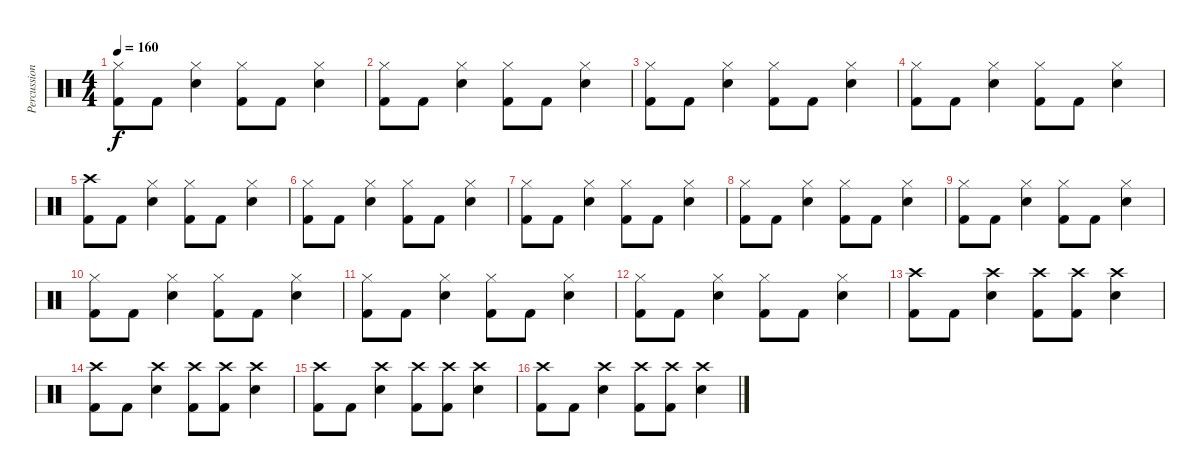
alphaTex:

\track ("Percussioni" "Percussion") {instrument percussion}
\staff {score}
\articulation defaults
\ts (4 4)
\tempo 160
\clef neutral
\ks c
("Hi-Hat (closed)" "Kick (hit) 2").8{dy f} "Kick (hit) 2".8 ("Hi-Hat (closed)" "Snare (hit) 2").4 ("Hi-Hat (closed)" "Kick (hit) 2").8 "Kick (hit) 2".8 ("Hi-Hat (closed)" "Snare (hit) 2").4 |
("Hi-Hat (closed)" "Kick (hit) 2").8 "Kick (hit) 2".8 ("Hi-Hat (closed)" "Snare (hit) 2").4 ("Hi-Hat (closed)" "Kick (hit) 2").8 "Kick (hit) 2".8 ("Hi-Hat (closed)" "Snare (hit) 2").4 |
("Hi-Hat (closed)" "Kick (hit) 2").8 "Kick (hit) 2".8 ("Hi-Hat (closed)" "Snare (hit) 2").4 ("Hi-Hat (closed)" "Kick (hit) 2").8 "Kick (hit) 2".8 ("Hi-Hat (closed)" "Snare (hit) 2").4 |
("Hi-Hat (closed)" "Kick (hit) 2").8 "Kick (hit) 2".8 ("Hi-Hat (closed)" "Snare (hit) 2").4 ("Hi-Hat (closed)" "Kick (hit) 2").8 "Kick (hit) 2".8 ("Hi-Hat (closed)" "Snare (hit) 2").4 |
("Crash high (hit)" "Kick (hit) 2").8 "Kick (hit) 2".8 ("Hi-Hat (closed)" "Snare (hit) 2").4 ("Hi-Hat (closed)" "Kick (hit) 2").8 "Kick (hit) 2".8 ("Hi-Hat (closed)" "Snare (hit) 2").4 |
("Hi-Hat (closed)" "Kick (hit) 2").8 "Kick (hit) 2".8 ("Hi-Hat (closed)" "Snare (hit) 2").4 ("Hi-Hat (closed)" "Kick (hit) 2").8 "Kick (hit) 2".8 ("Hi-Hat (closed)" "Snare (hit) 2").4 |
("Hi-Hat (closed)" "Kick (hit) 2").8 "Kick (hit) 2".8 ("Hi-Hat (closed)" "Snare (hit) 2").4 ("Hi-Hat (closed)" "Kick (hit) 2").8 "Kick (hit) 2".8 ("Hi-Hat (closed)" "Snare (hit) 2").4 |
("Hi-Hat (closed)" "Kick (hit) 2").8 "Kick (hit) 2".8 ("Hi-Hat (closed)" "Snare (hit) 2").4 ("Hi-Hat (closed)" "Kick (hit) 2").8 "Kick (hit) 2".8 ("Hi-Hat (closed)" "Snare (hit) 2").4 |
("Hi-Hat (closed)" "Kick (hit) 2").8 "Kick (hit) 2".8 ("Hi-Hat (closed)" "Snare (hit) 2").4 ("Hi-Hat (closed)" "Kick (hit) 2").8 "Kick (hit) 2".8 ("Hi-Hat (closed)" "Snare (hit) 2").4 |
("Hi-Hat (closed)" "Kick (hit) 2").8 "Kick (hit) 2".8 ("Hi-Hat (closed)" "Snare (hit) 2").4 ("Hi-Hat (closed)" "Kick (hit) 2").8 "Kick (hit) 2".8 ("Hi-Hat (closed)" "Snare (hit) 2").4 |
("Hi-Hat (closed)" "Kick (hit) 2").8 "Kick (hit) 2".8 ("Hi-Hat (closed)" "Snare (hit) 2").4 ("Hi-Hat (closed)" "Kick (hit) 2").8 "Kick (hit) 2".8 ("Hi-Hat (closed)" "Snare (hit) 2").4 |
("Hi-Hat (closed)" "Kick (hit) 2").8 "Kick (hit) 2".8 ("Hi-Hat (closed)" "Snare (hit) 2").4 ("Hi-Hat (closed)" "Kick (hit) 2").8 "Kick (hit) 2".8 ("Hi-Hat (closed)" "Snare (hit) 2").4 |
("Crash high (hit)" "Kick (hit) 2").8 "Kick (hit) 2".8 ("Crash high (hit)" "Snare (hit) 2").4 ("Crash high (hit)" "Kick (hit) 2").8 ("Crash high (hit)" "Kick (hit) 2").8 ("Crash high (hit)" "Snare (hit) 2").4 |
("Crash high (hit)" "Kick (hit) 2").8 "Kick (hit) 2".8 ("Crash high (hit)" "Snare (hit) 2").4 ("Crash high (hit)" "Kick (hit) 2").8 ("Crash high (hit)" "Kick (hit) 2").8 ("Crash high (hit)" "Snare (hit) 2").4 |
("Crash high (hit)" "Kick (hit) 2").8 "Kick (hit) 2".8 ("Crash high (hit)" "Snare (hit) 2").4 ("Crash high (hit)" "Kick (hit) 2").8 ("Crash high (hit)" "Kick (hit) 2").8 ("Crash high (hit)" "Snare (hit) 2").4 |
("Crash high (hit)" "Kick (hit) 2").8 "Kick (hit) 2".8 ("Crash high (hit)" "Snare (hit) 2").4 ("Crash high (hit)" "Kick (hit) 2").8 ("Crash high (hit)" "Kick (hit) 2").8 ("Crash high (hit)" "Snare (hit) 2").4
